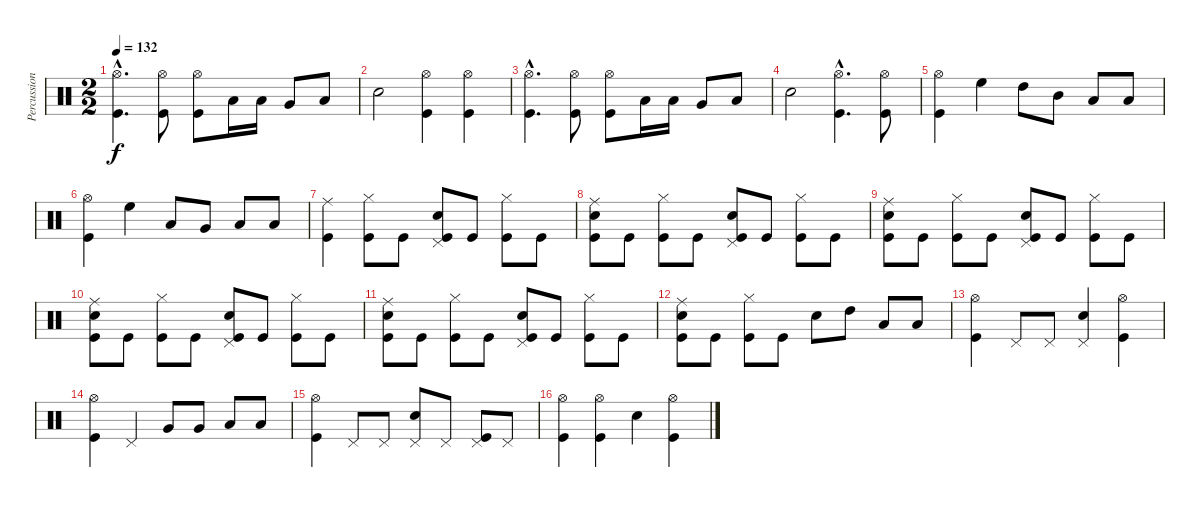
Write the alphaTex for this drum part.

\track ("Percussion" "Percussion") {instrument percussion}
\staff {score}
\articulation defaults
\ts (2 2)
\tempo 132
\clef neutral
\ks c
("Hi-Hat (open)"{hac} "Kick (hit)"{hac}).4{d dy f} ("Hi-Hat (open)" "Kick (hit)").8 ("Hi-Hat (open)" "Kick (hit)").8 "Low Floor Tom (hit)".16 "Low Floor Tom (hit)".16 "Very Low Tom (hit)".8 "Low Floor Tom (hit)".8 |
"Electric Snare (hit)".2 ("Kick (hit)" "Hi-Hat (open)").4 ("Kick (hit)" "Hi-Hat (open)").4 |
("Hi-Hat (open)"{hac} "Kick (hit)"{hac}).4{d} ("Hi-Hat (open)" "Kick (hit)").8 ("Hi-Hat (open)" "Kick (hit)").8 "Low Floor Tom (hit)".16 "Low Floor Tom (hit)".16 "Very Low Tom (hit)".8 "Low Floor Tom (hit)".8 |
"Electric Snare (hit)".2 ("Kick (hit)"{hac} "Hi-Hat (open)"{hac}).4{d} ("Kick (hit)" "Hi-Hat (open)").8 |
("Kick (hit)" "Hi-Hat (open)").4 "High Floor Tom (hit)".4 "High Tom (hit)".8 "Mid Tom (hit)".8 "Low Tom (hit)".8 "Low Tom (hit)".8 |
("Hi-Hat (open)" "Kick (hit)").4 "High Floor Tom (hit)".4 "Low Tom (hit)".8 "Very Low Tom (hit)".8 "Low Floor Tom (hit)".8 "Low Floor Tom (hit)".8 |
("Ride (middle)" "Kick (hit)").4 ("Hi-Hat (closed)" "Kick (hit)").8 "Kick (hit)".8 ("Pedal Hi-Hat (hit)" "Electric Snare (hit)" "Kick (hit)").8 "Kick (hit)".8 ("Hi-Hat (closed)" "Kick (hit)").8 "Kick (hit)".8 |
("Ride (middle)" "Electric Snare (hit)" "Kick (hit)").8 "Kick (hit)".8 ("Hi-Hat (closed)" "Kick (hit)").8 "Kick (hit)".8 ("Pedal Hi-Hat (hit)" "Electric Snare (hit)" "Kick (hit)").8 "Kick (hit)".8 ("Hi-Hat (closed)" "Kick (hit)").8 "Kick (hit)".8 |
("Ride (middle)" "Electric Snare (hit)" "Kick (hit)").8 "Kick (hit)".8 ("Hi-Hat (closed)" "Kick (hit)").8 "Kick (hit)".8 ("Pedal Hi-Hat (hit)" "Electric Snare (hit)" "Kick (hit)").8 "Kick (hit)".8 ("Hi-Hat (closed)" "Kick (hit)").8 "Kick (hit)".8 |
("Ride (middle)" "Electric Snare (hit)" "Kick (hit)").8 "Kick (hit)".8 ("Hi-Hat (closed)" "Kick (hit)").8 "Kick (hit)".8 ("Pedal Hi-Hat (hit)" "Electric Snare (hit)" "Kick (hit)").8 "Kick (hit)".8 ("Hi-Hat (closed)" "Kick (hit)").8 "Kick (hit)".8 |
("Ride (middle)" "Electric Snare (hit)" "Kick (hit)").8 "Kick (hit)".8 ("Hi-Hat (closed)" "Kick (hit)").8 "Kick (hit)".8 ("Pedal Hi-Hat (hit)" "Electric Snare (hit)" "Kick (hit)").8 "Kick (hit)".8 ("Hi-Hat (closed)" "Kick (hit)").8 "Kick (hit)".8 |
("Ride (middle)" "Electric Snare (hit)" "Kick (hit)").8 "Kick (hit)".8 ("Hi-Hat (closed)" "Kick (hit)").8 "Kick (hit)".8 "Electric Snare (hit)".8 "High Tom (hit)".8 "Low Tom (hit)".8 "Low Tom (hit)".8 |
("Kick (hit)" "Hi-Hat (open)").4 "Pedal Hi-Hat (hit)".8 "Pedal Hi-Hat (hit)".8 ("Electric Snare (hit)" "Pedal Hi-Hat (hit)").4 ("Kick (hit)" "Hi-Hat (open)").4 |
("Hi-Hat (open)" "Kick (hit)").4 "Pedal Hi-Hat (hit)".4 "Very Low Tom (hit)".8 "Very Low Tom (hit)".8 "Low Floor Tom (hit)".8 "Low Floor Tom (hit)".8 |
("Hi-Hat (open)" "Kick (hit)").4 "Pedal Hi-Hat (hit)".8 "Pedal Hi-Hat (hit)".8 ("Pedal Hi-Hat (hit)" "Electric Snare (hit)").8 "Pedal Hi-Hat (hit)".8 ("Pedal Hi-Hat (hit)" "Kick (hit)").8 "Pedal Hi-Hat (hit)".8 |
("Kick (hit)" "Hi-Hat (open)").4 ("Kick (hit)" "Hi-Hat (open)").4 "Electric Snare (hit)".4 ("Kick (hit)" "Hi-Hat (open)").4
